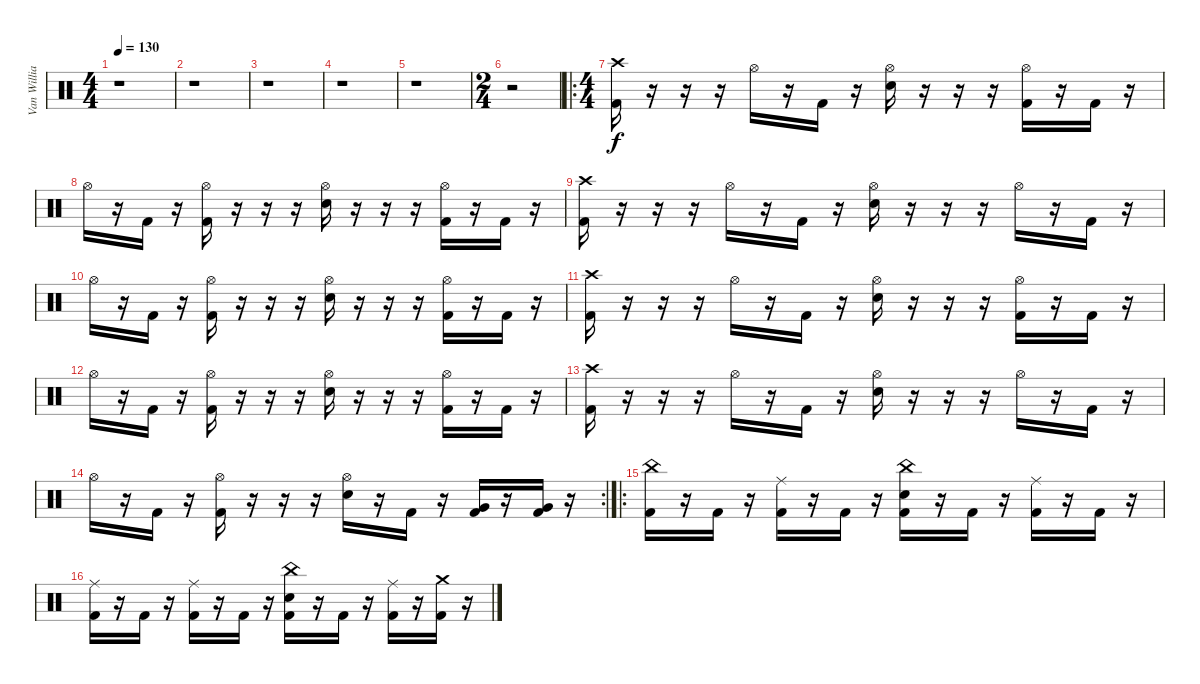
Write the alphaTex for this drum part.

\track ("Van Williams" "Van Willia") {instrument percussion}
\staff {score}
\articulation defaults
\ts (4 4)
\tempo 130
\clef neutral
\ks c
r.1{dy f} |
r.1 |
r.1 |
r.1 |
r.1 |
\ts (2 4)
r.2 |
\ro
\ts (4 4)
("Crash high (hit)" "Kick (hit) 2").16 r.16 r.16 r.16 "Hi-Hat (open)".16 r.16 "Kick (hit) 2".16 r.16 ("Hi-Hat (open)" "Electric Snare (hit)").16 r.16 r.16 r.16 ("Hi-Hat (open)" "Kick (hit) 2").16 r.16 "Kick (hit) 2".16 r.16 |
"Hi-Hat (open)".16 r.16 "Kick (hit) 2".16 r.16 ("Hi-Hat (open)" "Kick (hit) 2").16 r.16 r.16 r.16 ("Hi-Hat (open)" "Electric Snare (hit)").16 r.16 r.16 r.16 ("Hi-Hat (open)" "Kick (hit) 2").16 r.16 "Kick (hit) 2".16 r.16 |
("Crash high (hit)" "Kick (hit) 2").16 r.16 r.16 r.16 "Hi-Hat (open)".16 r.16 "Kick (hit) 2".16 r.16 ("Hi-Hat (open)" "Electric Snare (hit)").16 r.16 r.16 r.16 "Hi-Hat (open)".16 r.16 "Kick (hit) 2".16 r.16 |
"Hi-Hat (open)".16 r.16 "Kick (hit) 2".16 r.16 ("Hi-Hat (open)" "Kick (hit) 2").16 r.16 r.16 r.16 ("Hi-Hat (open)" "Electric Snare (hit)").16 r.16 r.16 r.16 ("Hi-Hat (open)" "Kick (hit) 2").16 r.16 "Kick (hit) 2".16 r.16 |
("Crash high (hit)" "Kick (hit) 2").16 r.16 r.16 r.16 "Hi-Hat (open)".16 r.16 "Kick (hit) 2".16 r.16 ("Hi-Hat (open)" "Electric Snare (hit)").16 r.16 r.16 r.16 ("Hi-Hat (open)" "Kick (hit) 2").16 r.16 "Kick (hit) 2".16 r.16 |
"Hi-Hat (open)".16 r.16 "Kick (hit) 2".16 r.16 ("Hi-Hat (open)" "Kick (hit) 2").16 r.16 r.16 r.16 ("Hi-Hat (open)" "Electric Snare (hit)").16 r.16 r.16 r.16 ("Hi-Hat (open)" "Kick (hit) 2").16 r.16 "Kick (hit) 2".16 r.16 |
("Crash high (hit)" "Kick (hit) 2").16 r.16 r.16 r.16 "Hi-Hat (open)".16 r.16 "Kick (hit) 2".16 r.16 ("Hi-Hat (open)" "Electric Snare (hit)").16 r.16 r.16 r.16 "Hi-Hat (open)".16 r.16 "Kick (hit) 2".16 r.16 |
\rc 2 "Hi-Hat (open)".16
r.16 "Kick (hit) 2".16 r.16 ("Hi-Hat (open)" "Kick (hit) 2").16 r.16 r.16 r.16 ("Hi-Hat (open)" "Electric Snare (hit)").16 r.16 "Kick (hit) 2".16 r.16 ("Kick (hit) 2" "Very Low Tom (hit)").16 r.16 ("Kick (hit) 2" "Very Low Tom (hit)").16 r.16 |
\ro
("China (hit)" "Kick (hit) 2").16 r.16 "Kick (hit) 2".16 r.16 ("Ride (middle)" "Kick (hit) 2").16 r.16 "Kick (hit) 2".16 r.16 ("China (hit)" "Kick (hit) 2" "Electric Snare (hit)").16 r.16 "Kick (hit) 2".16 r.16 ("Ride (middle)" "Kick (hit) 2").16 r.16 "Kick (hit) 2".16 r.16 |
("Ride (middle)" "Kick (hit) 2").16 r.16 "Kick (hit) 2".16 r.16 ("Ride (middle)" "Kick (hit) 2").16 r.16 "Kick (hit) 2".16 r.16 ("China (hit)" "Kick (hit) 2" "Electric Snare (hit)").16 r.16 "Kick (hit) 2".16 r.16 ("Ride (middle)" "Kick (hit) 2").16 r.16 ("Crash medium (hit)" "Kick (hit) 2").16 r.16
